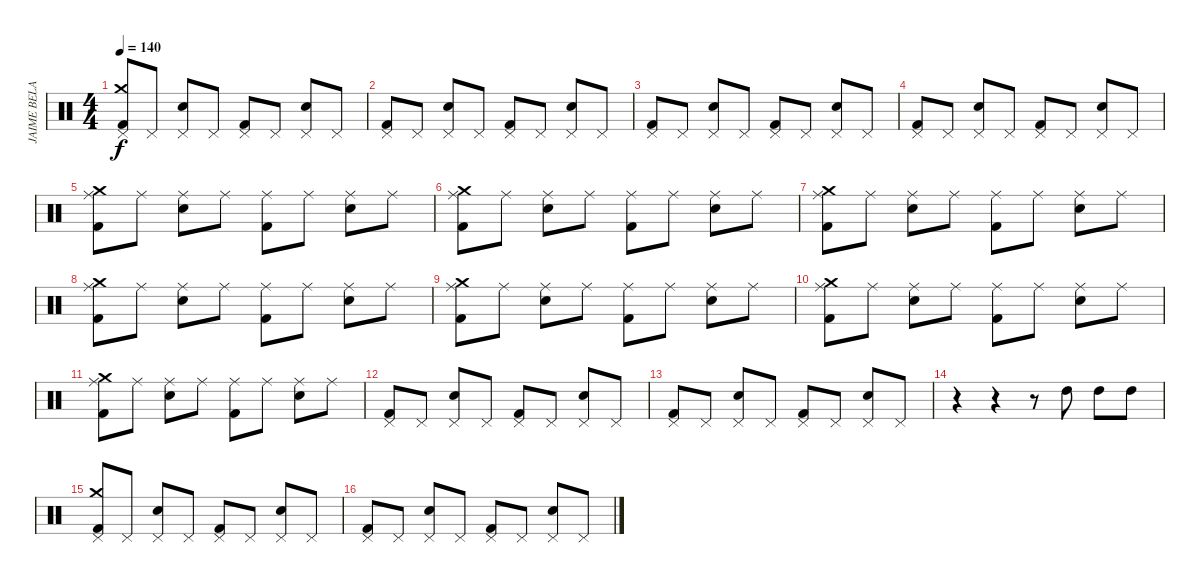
\track ("JAIME BELAUSTEGUI" "JAIME BELA") {instrument percussion}
\staff {score}
\articulation defaults
\ts (4 4)
\tempo 140
\clef neutral
\ks c
("Kick (hit) 2" "Crash medium (hit)" "Pedal Hi-Hat (hit)").8{dy f} "Pedal Hi-Hat (hit)".8 ("Electric Snare (hit)" "Pedal Hi-Hat (hit)").8 "Pedal Hi-Hat (hit)".8 ("Kick (hit) 2" "Pedal Hi-Hat (hit)").8 "Pedal Hi-Hat (hit)".8 ("Electric Snare (hit)" "Pedal Hi-Hat (hit)").8 "Pedal Hi-Hat (hit)".8 |
("Kick (hit) 2" "Pedal Hi-Hat (hit)").8 "Pedal Hi-Hat (hit)".8 ("Electric Snare (hit)" "Pedal Hi-Hat (hit)").8 "Pedal Hi-Hat (hit)".8 ("Kick (hit) 2" "Pedal Hi-Hat (hit)").8 "Pedal Hi-Hat (hit)".8 ("Electric Snare (hit)" "Pedal Hi-Hat (hit)").8 "Pedal Hi-Hat (hit)".8 |
("Kick (hit) 2" "Pedal Hi-Hat (hit)").8 "Pedal Hi-Hat (hit)".8 ("Electric Snare (hit)" "Pedal Hi-Hat (hit)").8 "Pedal Hi-Hat (hit)".8 ("Kick (hit) 2" "Pedal Hi-Hat (hit)").8 "Pedal Hi-Hat (hit)".8 ("Electric Snare (hit)" "Pedal Hi-Hat (hit)").8 "Pedal Hi-Hat (hit)".8 |
("Kick (hit) 2" "Pedal Hi-Hat (hit)").8 "Pedal Hi-Hat (hit)".8 ("Electric Snare (hit)" "Pedal Hi-Hat (hit)").8 "Pedal Hi-Hat (hit)".8 ("Kick (hit) 2" "Pedal Hi-Hat (hit)").8 "Pedal Hi-Hat (hit)".8 ("Electric Snare (hit)" "Pedal Hi-Hat (hit)").8 "Pedal Hi-Hat (hit)".8 |
("Kick (hit) 2" "Crash medium (hit)" "Ride (middle)").8 "Ride (middle)".8 ("Electric Snare (hit)" "Ride (middle)").8 "Ride (middle)".8 ("Kick (hit) 2" "Ride (middle)").8 "Ride (middle)".8 ("Electric Snare (hit)" "Ride (middle)").8 "Ride (middle)".8 |
("Kick (hit) 2" "Crash medium (hit)" "Ride (middle)").8 "Ride (middle)".8 ("Electric Snare (hit)" "Ride (middle)").8 "Ride (middle)".8 ("Kick (hit) 2" "Ride (middle)").8 "Ride (middle)".8 ("Electric Snare (hit)" "Ride (middle)").8 "Ride (middle)".8 |
("Kick (hit) 2" "Crash medium (hit)" "Ride (middle)").8 "Ride (middle)".8 ("Electric Snare (hit)" "Ride (middle)").8 "Ride (middle)".8 ("Kick (hit) 2" "Ride (middle)").8 "Ride (middle)".8 ("Electric Snare (hit)" "Ride (middle)").8 "Ride (middle)".8 |
("Kick (hit) 2" "Crash medium (hit)" "Ride (middle)").8 "Ride (middle)".8 ("Electric Snare (hit)" "Ride (middle)").8 "Ride (middle)".8 ("Kick (hit) 2" "Ride (middle)").8 "Ride (middle)".8 ("Electric Snare (hit)" "Ride (middle)").8 "Ride (middle)".8 |
("Kick (hit) 2" "Crash medium (hit)" "Ride (middle)").8 "Ride (middle)".8 ("Electric Snare (hit)" "Ride (middle)").8 "Ride (middle)".8 ("Kick (hit) 2" "Ride (middle)").8 "Ride (middle)".8 ("Electric Snare (hit)" "Ride (middle)").8 "Ride (middle)".8 |
("Kick (hit) 2" "Crash medium (hit)" "Ride (middle)").8 "Ride (middle)".8 ("Electric Snare (hit)" "Ride (middle)").8 "Ride (middle)".8 ("Kick (hit) 2" "Ride (middle)").8 "Ride (middle)".8 ("Electric Snare (hit)" "Ride (middle)").8 "Ride (middle)".8 |
("Kick (hit) 2" "Crash medium (hit)" "Ride (middle)").8 "Ride (middle)".8 ("Electric Snare (hit)" "Ride (middle)").8 "Ride (middle)".8 ("Kick (hit) 2" "Ride (middle)").8 "Ride (middle)".8 ("Electric Snare (hit)" "Ride (middle)").8 "Ride (middle)".8 |
("Kick (hit) 2" "Pedal Hi-Hat (hit)").8 "Pedal Hi-Hat (hit)".8 ("Electric Snare (hit)" "Pedal Hi-Hat (hit)").8 "Pedal Hi-Hat (hit)".8 ("Kick (hit) 2" "Pedal Hi-Hat (hit)").8 "Pedal Hi-Hat (hit)".8 ("Electric Snare (hit)" "Pedal Hi-Hat (hit)").8 "Pedal Hi-Hat (hit)".8 |
("Kick (hit) 2" "Pedal Hi-Hat (hit)").8 "Pedal Hi-Hat (hit)".8 ("Electric Snare (hit)" "Pedal Hi-Hat (hit)").8 "Pedal Hi-Hat (hit)".8 ("Kick (hit) 2" "Pedal Hi-Hat (hit)").8 "Pedal Hi-Hat (hit)".8 ("Electric Snare (hit)" "Pedal Hi-Hat (hit)").8 "Pedal Hi-Hat (hit)".8 |
r.4 r.4 r.8 "High Tom (hit)".8 "High Tom (hit)".8 "High Tom (hit)".8 |
("Kick (hit) 2" "Crash medium (hit)" "Pedal Hi-Hat (hit)").8 "Pedal Hi-Hat (hit)".8 ("Electric Snare (hit)" "Pedal Hi-Hat (hit)").8 "Pedal Hi-Hat (hit)".8 ("Kick (hit) 2" "Pedal Hi-Hat (hit)").8 "Pedal Hi-Hat (hit)".8 ("Electric Snare (hit)" "Pedal Hi-Hat (hit)").8 "Pedal Hi-Hat (hit)".8 |
("Kick (hit) 2" "Pedal Hi-Hat (hit)").8 "Pedal Hi-Hat (hit)".8 ("Electric Snare (hit)" "Pedal Hi-Hat (hit)").8 "Pedal Hi-Hat (hit)".8 ("Kick (hit) 2" "Pedal Hi-Hat (hit)").8 "Pedal Hi-Hat (hit)".8 ("Electric Snare (hit)" "Pedal Hi-Hat (hit)").8 "Pedal Hi-Hat (hit)".8
